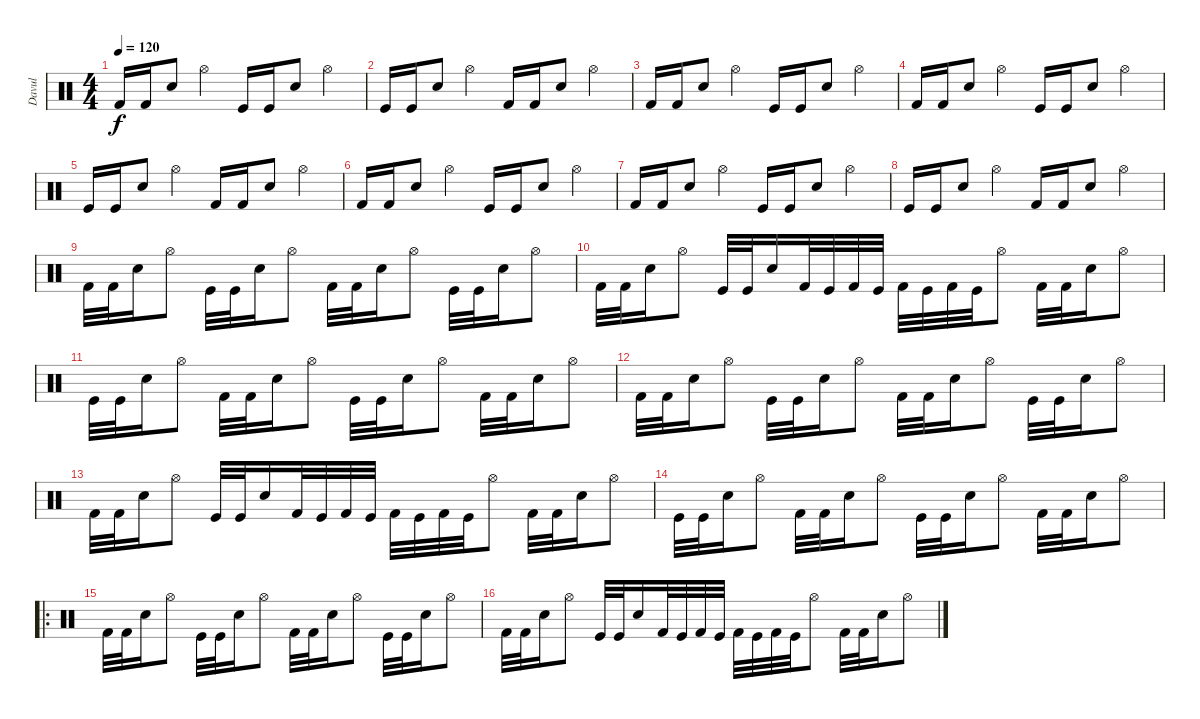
\track ("Davul" "Davul") {instrument percussion}
\staff {score}
\articulation defaults
\ts (4 4)
\tempo 120
\clef neutral
\ks c "Kick (hit) 2".16{dy f} "Kick (hit) 2".16 "Electric Snare (hit)".8 "Hi-Hat (open)".4 "Kick (hit)".16 "Kick (hit)".16 "Snare (hit) 2".8 "Hi-Hat (open)".4
|
"Kick (hit)".16 "Kick (hit)".16 "Snare (hit) 2".8 "Hi-Hat (open)".4 "Kick (hit) 2".16 "Kick (hit) 2".16 "Electric Snare (hit)".8 "Hi-Hat (open)".4 |
"Kick (hit) 2".16 "Kick (hit) 2".16 "Electric Snare (hit)".8 "Hi-Hat (open)".4 "Kick (hit)".16 "Kick (hit)".16 "Snare (hit) 2".8 "Hi-Hat (open)".4 |
"Kick (hit) 2".16 "Kick (hit) 2".16 "Electric Snare (hit)".8 "Hi-Hat (open)".4 "Kick (hit)".16 "Kick (hit)".16 "Snare (hit) 2".8 "Hi-Hat (open)".4 |
"Kick (hit)".16 "Kick (hit)".16 "Snare (hit) 2".8 "Hi-Hat (open)".4 "Kick (hit) 2".16 "Kick (hit) 2".16 "Electric Snare (hit)".8 "Hi-Hat (open)".4 |
"Kick (hit) 2".16 "Kick (hit) 2".16 "Electric Snare (hit)".8 "Hi-Hat (open)".4 "Kick (hit)".16 "Kick (hit)".16 "Snare (hit) 2".8 "Hi-Hat (open)".4 |
"Kick (hit) 2".16 "Kick (hit) 2".16 "Electric Snare (hit)".8 "Hi-Hat (open)".4 "Kick (hit)".16 "Kick (hit)".16 "Snare (hit) 2".8 "Hi-Hat (open)".4 |
"Kick (hit)".16 "Kick (hit)".16 "Snare (hit) 2".8 "Hi-Hat (open)".4 "Kick (hit) 2".16 "Kick (hit) 2".16 "Electric Snare (hit)".8 "Hi-Hat (open)".4 |
"Kick (hit) 2".32 "Kick (hit) 2".32 "Electric Snare (hit)".16 "Hi-Hat (open)".8 "Kick (hit)".32 "Kick (hit)".32 "Snare (hit) 2".16 "Hi-Hat (open)".8 "Kick (hit) 2".32 "Kick (hit) 2".32 "Electric Snare (hit)".16 "Hi-Hat (open)".8 "Kick (hit)".32 "Kick (hit)".32 "Snare (hit) 2".16 "Hi-Hat (open)".8 |
"Kick (hit) 2".32 "Kick (hit) 2".32 "Electric Snare (hit)".16 "Hi-Hat (open)".8 "Kick (hit)".32 "Kick (hit)".32 "Snare (hit) 2".16 "Kick (hit) 2".32 "Kick (hit)".32 "Kick (hit) 2".32 "Kick (hit)".32 "Kick (hit) 2".32 "Kick (hit)".32 "Kick (hit) 2".32 "Kick (hit)".32 "Hi-Hat (open)".8 "Kick (hit) 2".32 "Kick (hit) 2".32 "Electric Snare (hit)".16 "Hi-Hat (open)".8 |
"Kick (hit)".32 "Kick (hit)".32 "Snare (hit) 2".16 "Hi-Hat (open)".8 "Kick (hit) 2".32 "Kick (hit) 2".32 "Electric Snare (hit)".16 "Hi-Hat (open)".8 "Kick (hit)".32 "Kick (hit)".32 "Snare (hit) 2".16 "Hi-Hat (open)".8 "Kick (hit) 2".32 "Kick (hit) 2".32 "Electric Snare (hit)".16 "Hi-Hat (open)".8 |
"Kick (hit) 2".32 "Kick (hit) 2".32 "Electric Snare (hit)".16 "Hi-Hat (open)".8 "Kick (hit)".32 "Kick (hit)".32 "Snare (hit) 2".16 "Hi-Hat (open)".8 "Kick (hit) 2".32 "Kick (hit) 2".32 "Electric Snare (hit)".16 "Hi-Hat (open)".8 "Kick (hit)".32 "Kick (hit)".32 "Snare (hit) 2".16 "Hi-Hat (open)".8 |
"Kick (hit) 2".32 "Kick (hit) 2".32 "Electric Snare (hit)".16 "Hi-Hat (open)".8 "Kick (hit)".32 "Kick (hit)".32 "Snare (hit) 2".16 "Kick (hit) 2".32 "Kick (hit)".32 "Kick (hit) 2".32 "Kick (hit)".32 "Kick (hit) 2".32 "Kick (hit)".32 "Kick (hit) 2".32 "Kick (hit)".32 "Hi-Hat (open)".8 "Kick (hit) 2".32 "Kick (hit) 2".32 "Electric Snare (hit)".16 "Hi-Hat (open)".8 |
"Kick (hit)".32 "Kick (hit)".32 "Snare (hit) 2".16 "Hi-Hat (open)".8 "Kick (hit) 2".32 "Kick (hit) 2".32 "Electric Snare (hit)".16 "Hi-Hat (open)".8 "Kick (hit)".32 "Kick (hit)".32 "Snare (hit) 2".16 "Hi-Hat (open)".8 "Kick (hit) 2".32 "Kick (hit) 2".32 "Electric Snare (hit)".16 "Hi-Hat (open)".8 |
\ro "Kick (hit) 2".32 "Kick (hit) 2".32 "Electric Snare (hit)".16 "Hi-Hat (open)".8 "Kick (hit)".32 "Kick (hit)".32 "Snare (hit) 2".16 "Hi-Hat (open)".8 "Kick (hit) 2".32 "Kick (hit) 2".32 "Electric Snare (hit)".16 "Hi-Hat (open)".8 "Kick (hit)".32 "Kick (hit)".32 "Snare (hit) 2".16 "Hi-Hat (open)".8
|
"Kick (hit) 2".32 "Kick (hit) 2".32 "Electric Snare (hit)".16 "Hi-Hat (open)".8 "Kick (hit)".32 "Kick (hit)".32 "Snare (hit) 2".16 "Kick (hit) 2".32 "Kick (hit)".32 "Kick (hit) 2".32 "Kick (hit)".32 "Kick (hit) 2".32 "Kick (hit)".32 "Kick (hit) 2".32 "Kick (hit)".32 "Hi-Hat (open)".8 "Kick (hit) 2".32 "Kick (hit) 2".32 "Electric Snare (hit)".16 "Hi-Hat (open)".8
